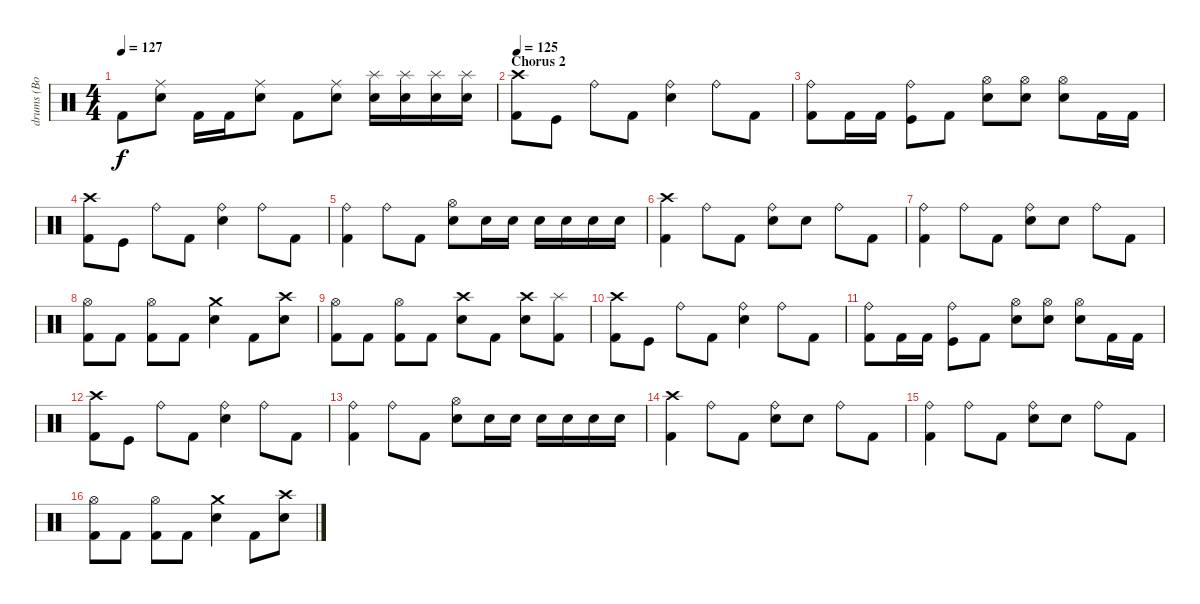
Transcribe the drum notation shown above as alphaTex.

\track (" drums (Bob Bryar)" " drums (Bo") {instrument percussion}
\staff {score}
\articulation defaults
\ts (4 4)
\tempo 127
\clef neutral
\ks c "Kick (hit) 2".8{dy f}
("Ride (middle)" "Snare (hit) 2").8 "Kick (hit) 2".16 "Kick (hit) 2".16 ("Ride (middle)" "Snare (hit) 2").8 "Kick (hit) 2".8 ("Ride (middle)" "Snare (hit) 2").8 ("Splash (hit)" "Snare (hit) 2").16 ("Splash (hit)" "Snare (hit) 2").16 ("Splash (hit)" "Snare (hit) 2").16 ("Splash (hit)" "Snare (hit) 2").16 |
\section ("" "Chorus 2")
\tempo 125
("Kick (hit) 2" "Crash high (hit)").8 "Kick (hit)".8 "Ride (bell)".8 "Kick (hit) 2".8 ("Ride (bell)" "Snare (hit) 2").4 "Ride (bell)".8 "Kick (hit) 2".8 |
("Ride (bell)" "Kick (hit) 2").8 "Kick (hit) 2".16 "Kick (hit) 2".16 ("Ride (bell)" "Kick (hit)").8 "Kick (hit) 2".8 ("Hi-Hat (open)" "Snare (hit) 2").8 ("Hi-Hat (open)" "Snare (hit) 2").8 ("Hi-Hat (open)" "Snare (hit) 2").8 "Kick (hit) 2".16 "Kick (hit) 2".16 |
("Kick (hit) 2" "Crash high (hit)").8 "Kick (hit)".8 "Ride (bell)".8 "Kick (hit) 2".8 ("Ride (bell)" "Snare (hit) 2").4 "Ride (bell)".8 "Kick (hit) 2".8 |
("Ride (bell)" "Kick (hit) 2").4 "Ride (bell)".8 "Kick (hit) 2".8 ("Hi-Hat (open)" "Snare (hit) 2").8 "Snare (hit) 2".16 "Snare (hit) 2".16 "Snare (hit) 2".16 "Snare (hit) 2".16 "Snare (hit) 2".16 "Snare (hit) 2".16 |
("Crash high (hit)" "Kick (hit) 2").4 "Ride (bell)".8 "Kick (hit) 2".8 ("Ride (bell)" "Snare (hit) 2").8 "Snare (hit) 2".8 "Ride (bell)".8 "Kick (hit) 2".8 |
("Ride (bell)" "Kick (hit) 2").4 "Ride (bell)".8 "Kick (hit) 2".8 ("Ride (bell)" "Snare (hit) 2").8 "Snare (hit) 2".8 "Ride (bell)".8 "Kick (hit) 2".8 |
("Hi-Hat (open)" "Kick (hit) 2").8 "Kick (hit) 2".8 ("Hi-Hat (open)" "Kick (hit) 2").8 "Kick (hit) 2".8 ("Crash medium (hit)" "Snare (hit) 2").4 "Kick (hit) 2".8 ("Crash high (hit)" "Snare (hit) 2").8 |
("Hi-Hat (open)" "Kick (hit) 2").8 "Kick (hit) 2".8 ("Hi-Hat (open)" "Kick (hit) 2").8 "Kick (hit) 2".8 ("Crash high (hit)" "Snare (hit) 2").8 "Kick (hit) 2".8 ("Crash high (hit)" "Snare (hit) 2").8 ("Splash (hit)" "Kick (hit) 2").8 |
("Kick (hit) 2" "Crash high (hit)").8 "Kick (hit)".8 "Ride (bell)".8 "Kick (hit) 2".8 ("Ride (bell)" "Snare (hit) 2").4 "Ride (bell)".8 "Kick (hit) 2".8 |
("Ride (bell)" "Kick (hit) 2").8 "Kick (hit) 2".16 "Kick (hit) 2".16 ("Ride (bell)" "Kick (hit)").8 "Kick (hit) 2".8 ("Hi-Hat (open)" "Snare (hit) 2").8 ("Hi-Hat (open)" "Snare (hit) 2").8 ("Hi-Hat (open)" "Snare (hit) 2").8 "Kick (hit) 2".16 "Kick (hit) 2".16 |
("Kick (hit) 2" "Crash high (hit)").8 "Kick (hit)".8 "Ride (bell)".8 "Kick (hit) 2".8 ("Ride (bell)" "Snare (hit) 2").4 "Ride (bell)".8 "Kick (hit) 2".8 |
("Ride (bell)" "Kick (hit) 2").4 "Ride (bell)".8 "Kick (hit) 2".8 ("Hi-Hat (open)" "Snare (hit) 2").8 "Snare (hit) 2".16 "Snare (hit) 2".16 "Snare (hit) 2".16 "Snare (hit) 2".16 "Snare (hit) 2".16 "Snare (hit) 2".16 |
("Crash high (hit)" "Kick (hit) 2").4 "Ride (bell)".8 "Kick (hit) 2".8 ("Ride (bell)" "Snare (hit) 2").8 "Snare (hit) 2".8 "Ride (bell)".8 "Kick (hit) 2".8 |
("Ride (bell)" "Kick (hit) 2").4 "Ride (bell)".8 "Kick (hit) 2".8 ("Ride (bell)" "Snare (hit) 2").8 "Snare (hit) 2".8 "Ride (bell)".8 "Kick (hit) 2".8 |
("Hi-Hat (open)" "Kick (hit) 2").8 "Kick (hit) 2".8 ("Hi-Hat (open)" "Kick (hit) 2").8 "Kick (hit) 2".8 ("Crash medium (hit)" "Snare (hit) 2").4 "Kick (hit) 2".8 ("Crash high (hit)" "Snare (hit) 2").8
